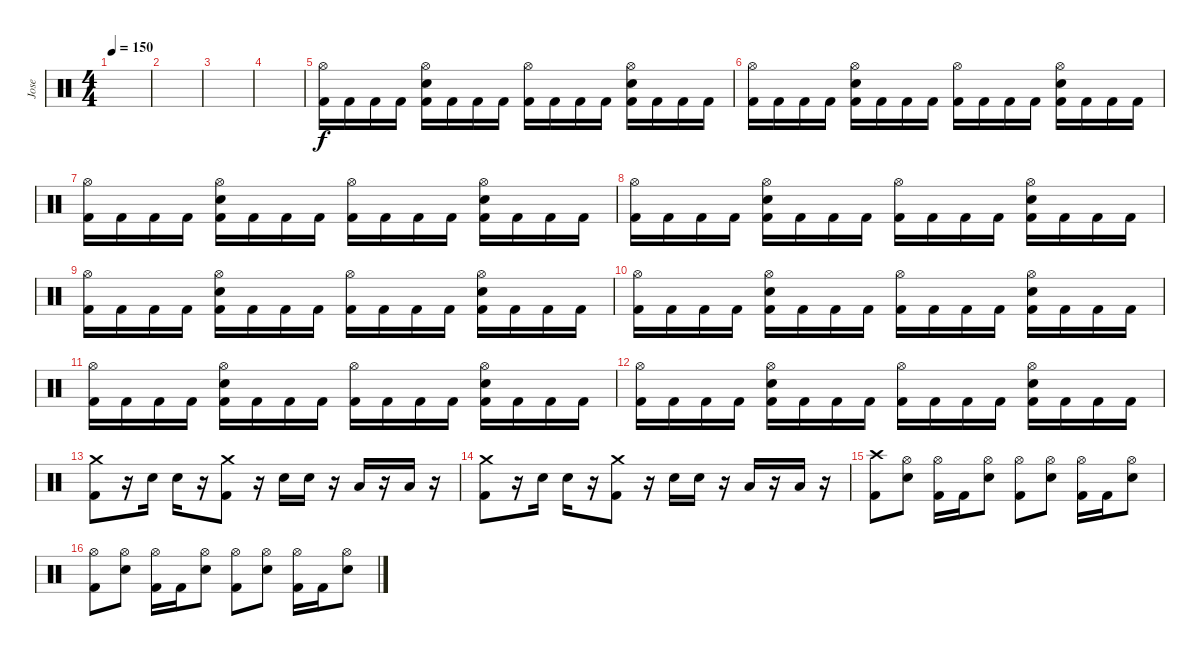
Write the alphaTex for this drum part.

\track ("Jose" "Jose") {instrument percussion}
\staff {score}
\articulation defaults
\ts (4 4)
\tempo 150
\clef neutral
\ks c
|
|
|
|
("Hi-Hat (open)" "Kick (hit) 2").16 "Kick (hit) 2".16 "Kick (hit) 2".16 "Kick (hit) 2".16 ("Kick (hit) 2" "Snare (hit) 2" "Hi-Hat (open)").16 "Kick (hit) 2".16 "Kick (hit) 2".16 "Kick (hit) 2".16 ("Kick (hit) 2" "Hi-Hat (open)").16 "Kick (hit) 2".16 "Kick (hit) 2".16 "Kick (hit) 2".16 ("Kick (hit) 2" "Snare (hit) 2" "Hi-Hat (open)").16 "Kick (hit) 2".16 "Kick (hit) 2".16 "Kick (hit) 2".16 |
("Hi-Hat (open)" "Kick (hit) 2").16 "Kick (hit) 2".16 "Kick (hit) 2".16 "Kick (hit) 2".16 ("Kick (hit) 2" "Snare (hit) 2" "Hi-Hat (open)").16 "Kick (hit) 2".16 "Kick (hit) 2".16 "Kick (hit) 2".16 ("Kick (hit) 2" "Hi-Hat (open)").16 "Kick (hit) 2".16 "Kick (hit) 2".16 "Kick (hit) 2".16 ("Kick (hit) 2" "Snare (hit) 2" "Hi-Hat (open)").16 "Kick (hit) 2".16 "Kick (hit) 2".16 "Kick (hit) 2".16 |
("Hi-Hat (open)" "Kick (hit) 2").16 "Kick (hit) 2".16 "Kick (hit) 2".16 "Kick (hit) 2".16 ("Kick (hit) 2" "Snare (hit) 2" "Hi-Hat (open)").16 "Kick (hit) 2".16 "Kick (hit) 2".16 "Kick (hit) 2".16 ("Kick (hit) 2" "Hi-Hat (open)").16 "Kick (hit) 2".16 "Kick (hit) 2".16 "Kick (hit) 2".16 ("Kick (hit) 2" "Snare (hit) 2" "Hi-Hat (open)").16 "Kick (hit) 2".16 "Kick (hit) 2".16 "Kick (hit) 2".16 |
("Hi-Hat (open)" "Kick (hit) 2").16 "Kick (hit) 2".16 "Kick (hit) 2".16 "Kick (hit) 2".16 ("Kick (hit) 2" "Snare (hit) 2" "Hi-Hat (open)").16 "Kick (hit) 2".16 "Kick (hit) 2".16 "Kick (hit) 2".16 ("Kick (hit) 2" "Hi-Hat (open)").16 "Kick (hit) 2".16 "Kick (hit) 2".16 "Kick (hit) 2".16 ("Kick (hit) 2" "Snare (hit) 2" "Hi-Hat (open)").16 "Kick (hit) 2".16 "Kick (hit) 2".16 "Kick (hit) 2".16 |
("Hi-Hat (open)" "Kick (hit) 2").16 "Kick (hit) 2".16 "Kick (hit) 2".16 "Kick (hit) 2".16 ("Kick (hit) 2" "Snare (hit) 2" "Hi-Hat (open)").16 "Kick (hit) 2".16 "Kick (hit) 2".16 "Kick (hit) 2".16 ("Kick (hit) 2" "Hi-Hat (open)").16 "Kick (hit) 2".16 "Kick (hit) 2".16 "Kick (hit) 2".16 ("Kick (hit) 2" "Snare (hit) 2" "Hi-Hat (open)").16 "Kick (hit) 2".16 "Kick (hit) 2".16 "Kick (hit) 2".16 |
("Hi-Hat (open)" "Kick (hit) 2").16 "Kick (hit) 2".16 "Kick (hit) 2".16 "Kick (hit) 2".16 ("Kick (hit) 2" "Snare (hit) 2" "Hi-Hat (open)").16 "Kick (hit) 2".16 "Kick (hit) 2".16 "Kick (hit) 2".16 ("Kick (hit) 2" "Hi-Hat (open)").16 "Kick (hit) 2".16 "Kick (hit) 2".16 "Kick (hit) 2".16 ("Kick (hit) 2" "Snare (hit) 2" "Hi-Hat (open)").16 "Kick (hit) 2".16 "Kick (hit) 2".16 "Kick (hit) 2".16 |
("Hi-Hat (open)" "Kick (hit) 2").16 "Kick (hit) 2".16 "Kick (hit) 2".16 "Kick (hit) 2".16 ("Kick (hit) 2" "Snare (hit) 2" "Hi-Hat (open)").16 "Kick (hit) 2".16 "Kick (hit) 2".16 "Kick (hit) 2".16 ("Kick (hit) 2" "Hi-Hat (open)").16 "Kick (hit) 2".16 "Kick (hit) 2".16 "Kick (hit) 2".16 ("Kick (hit) 2" "Snare (hit) 2" "Hi-Hat (open)").16 "Kick (hit) 2".16 "Kick (hit) 2".16 "Kick (hit) 2".16 |
("Hi-Hat (open)" "Kick (hit) 2").16 "Kick (hit) 2".16 "Kick (hit) 2".16 "Kick (hit) 2".16 ("Kick (hit) 2" "Snare (hit) 2" "Hi-Hat (open)").16 "Kick (hit) 2".16 "Kick (hit) 2".16 "Kick (hit) 2".16 ("Kick (hit) 2" "Hi-Hat (open)").16 "Kick (hit) 2".16 "Kick (hit) 2".16 "Kick (hit) 2".16 ("Kick (hit) 2" "Snare (hit) 2" "Hi-Hat (open)").16 "Kick (hit) 2".16 "Kick (hit) 2".16 "Kick (hit) 2".16 |
("Crash medium (hit)" "Kick (hit) 2").8 r.16 "Electric Snare (hit)".16 "Electric Snare (hit)".16 r.16 ("Crash medium (hit)" "Kick (hit) 2").8 r.16 "Electric Snare (hit)".16 "Electric Snare (hit)".16 r.16 "Low Tom (hit)".16 r.16 "Low Tom (hit)".16 r.16 |
("Crash medium (hit)" "Kick (hit) 2").8 r.16 "Electric Snare (hit)".16 "Electric Snare (hit)".16 r.16 ("Crash medium (hit)" "Kick (hit) 2").8 r.16 "Electric Snare (hit)".16 "Electric Snare (hit)".16 r.16 "Low Tom (hit)".16 r.16 "Low Tom (hit)".16 r.16 |
("Crash high (hit)" "Kick (hit) 2").8 ("Hi-Hat (open)" "Snare (hit) 2").8 ("Hi-Hat (open)" "Kick (hit) 2").16 "Kick (hit) 2".16 ("Hi-Hat (open)" "Snare (hit) 2").8 ("Hi-Hat (open)" "Kick (hit) 2").8 ("Hi-Hat (open)" "Snare (hit) 2").8 ("Hi-Hat (open)" "Kick (hit) 2").16 "Kick (hit) 2".16 ("Hi-Hat (open)" "Snare (hit) 2").8 |
("Hi-Hat (open)" "Kick (hit) 2").8 ("Hi-Hat (open)" "Snare (hit) 2").8 ("Hi-Hat (open)" "Kick (hit) 2").16 "Kick (hit) 2".16 ("Hi-Hat (open)" "Snare (hit) 2").8 ("Hi-Hat (open)" "Kick (hit) 2").8 ("Hi-Hat (open)" "Snare (hit) 2").8 ("Hi-Hat (open)" "Kick (hit) 2").16 "Kick (hit) 2".16 ("Hi-Hat (open)" "Snare (hit) 2").8
